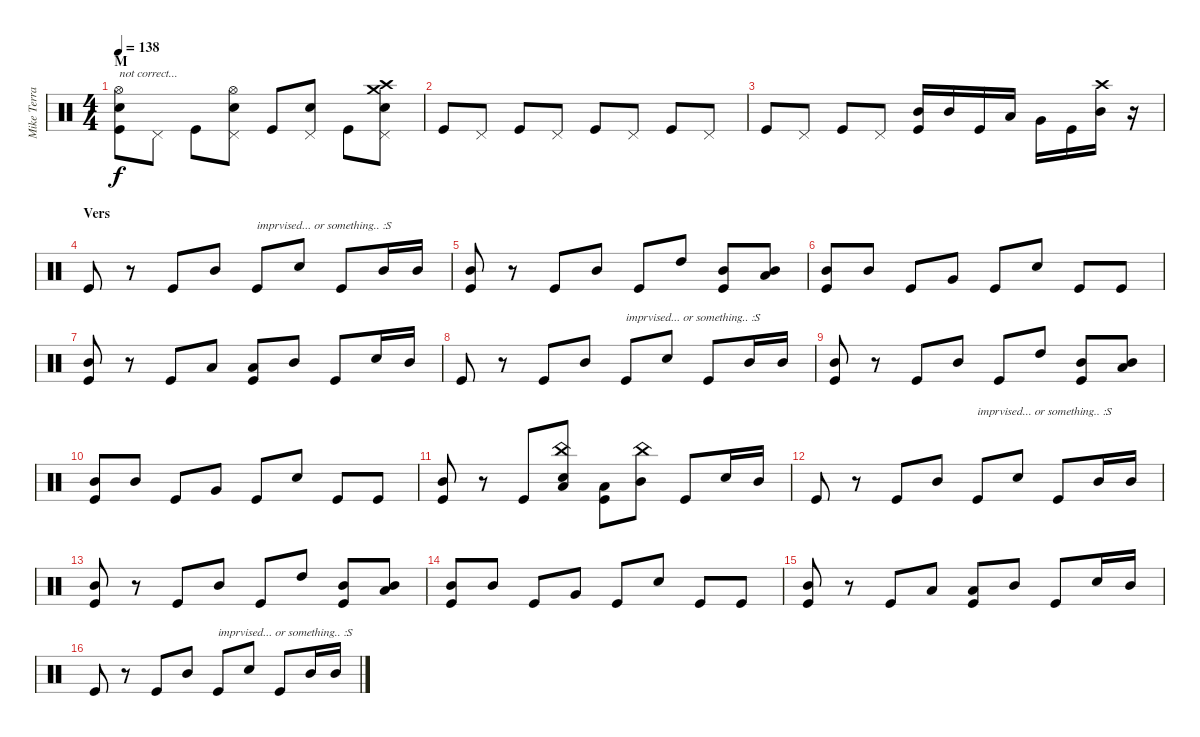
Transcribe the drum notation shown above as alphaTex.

\track ("Mike Terrana" "Mike Terra") {instrument percussion}
\staff {score}
\articulation defaults
\ts (4 4)
\section ("" "M")
\tempo 138
\clef neutral
\ks c
("Hi-Hat (open)" "Snare (hit) 2" "Kick (hit)").8{txt "not correct..." dy f} "Pedal Hi-Hat (hit)".8 "Kick (hit)".8 ("Pedal Hi-Hat (hit)" "Hi-Hat (open)" "Snare (hit) 2").8 "Kick (hit)".8 ("Pedal Hi-Hat (hit)" "Snare (hit) 2").8 "Kick (hit)".8 ("Pedal Hi-Hat (hit)" "Crash medium (hit)" "Crash high (hit)" "Snare (hit) 2").8 |
"Kick (hit)".8 "Pedal Hi-Hat (hit)".8 "Kick (hit)".8 "Pedal Hi-Hat (hit)".8 "Kick (hit)".8 "Pedal Hi-Hat (hit)".8 "Kick (hit)".8 "Pedal Hi-Hat (hit)".8 |
"Kick (hit)".8 "Pedal Hi-Hat (hit)".8 "Kick (hit)".8 "Pedal Hi-Hat (hit)".8 ("Mid Tom (hit)" "Kick (hit)").16 "Mid Tom (hit)".16 "Kick (hit)".16 "Low Tom (hit)".16 "Very Low Tom (hit)".16 "Kick (hit)".16 ("Crash high (hit)" "Mid Tom (hit)").16 r.16 |
\section ("" "Vers")
"Kick (hit)".8 r.8 "Kick (hit)".8 "Mid Tom (hit)".8 "Kick (hit)".8{txt "imprvised... or something.. :S"} "Snare (hit) 2".8 "Kick (hit)".8 "Mid Tom (hit)".16 "Mid Tom (hit)".16 |
("Mid Tom (hit)" "Kick (hit)").8 r.8 "Kick (hit)".8 "Mid Tom (hit)".8 "Kick (hit)".8 "High Tom (hit)".8 ("Mid Tom (hit)" "Kick (hit)").8 ("Low Tom (hit)" "Mid Tom (hit)").8 |
("Mid Tom (hit)" "Kick (hit)").8 "Mid Tom (hit)".8 "Kick (hit)".8 "Very Low Tom (hit)".8 "Kick (hit)".8 "Snare (hit) 2".8 "Kick (hit)".8 "Kick (hit)".8 |
("Mid Tom (hit)" "Kick (hit)").8 r.8 "Kick (hit)".8 "Low Tom (hit)".8 ("Low Tom (hit)" "Kick (hit)").8 "Mid Tom (hit)".8 "Kick (hit)".8 "Snare (hit) 2".16 "Mid Tom (hit)".16 |
"Kick (hit)".8 r.8 "Kick (hit)".8 "Mid Tom (hit)".8 "Kick (hit)".8{txt "imprvised... or something.. :S"} "Snare (hit) 2".8 "Kick (hit)".8 "Mid Tom (hit)".16 "Mid Tom (hit)".16 |
("Mid Tom (hit)" "Kick (hit)").8 r.8 "Kick (hit)".8 "Mid Tom (hit)".8 "Kick (hit)".8 "High Tom (hit)".8 ("Mid Tom (hit)" "Kick (hit)").8 ("Low Tom (hit)" "Mid Tom (hit)").8 |
("Mid Tom (hit)" "Kick (hit)").8 "Mid Tom (hit)".8 "Kick (hit)".8 "Very Low Tom (hit)".8 "Kick (hit)".8 "Snare (hit) 2".8 "Kick (hit)".8 "Kick (hit)".8 |
("Mid Tom (hit)" "Kick (hit)").8 r.8 "Kick (hit)".8 ("China (hit)" "Electric Snare (hit)" "Low Tom (hit)").8 ("Low Tom (hit)" "Kick (hit)").8 ("China (hit)" "Mid Tom (hit)").8 "Kick (hit)".8 "Snare (hit) 2".16 "Mid Tom (hit)".16 |
\section ("" "")
"Kick (hit)".8 r.8 "Kick (hit)".8 "Mid Tom (hit)".8 "Kick (hit)".8{txt "imprvised... or something.. :S"} "Snare (hit) 2".8 "Kick (hit)".8 "Mid Tom (hit)".16 "Mid Tom (hit)".16 |
("Mid Tom (hit)" "Kick (hit)").8 r.8 "Kick (hit)".8 "Mid Tom (hit)".8 "Kick (hit)".8 "High Tom (hit)".8 ("Mid Tom (hit)" "Kick (hit)").8 ("Low Tom (hit)" "Mid Tom (hit)").8 |
("Mid Tom (hit)" "Kick (hit)").8 "Mid Tom (hit)".8 "Kick (hit)".8 "Very Low Tom (hit)".8 "Kick (hit)".8 "Snare (hit) 2".8 "Kick (hit)".8 "Kick (hit)".8 |
("Mid Tom (hit)" "Kick (hit)").8 r.8 "Kick (hit)".8 "Low Tom (hit)".8 ("Low Tom (hit)" "Kick (hit)").8 "Mid Tom (hit)".8 "Kick (hit)".8 "Snare (hit) 2".16 "Mid Tom (hit)".16 |
"Kick (hit)".8 r.8 "Kick (hit)".8 "Mid Tom (hit)".8 "Kick (hit)".8{txt "imprvised... or something.. :S"} "Snare (hit) 2".8 "Kick (hit)".8 "Mid Tom (hit)".16 "Mid Tom (hit)".16
